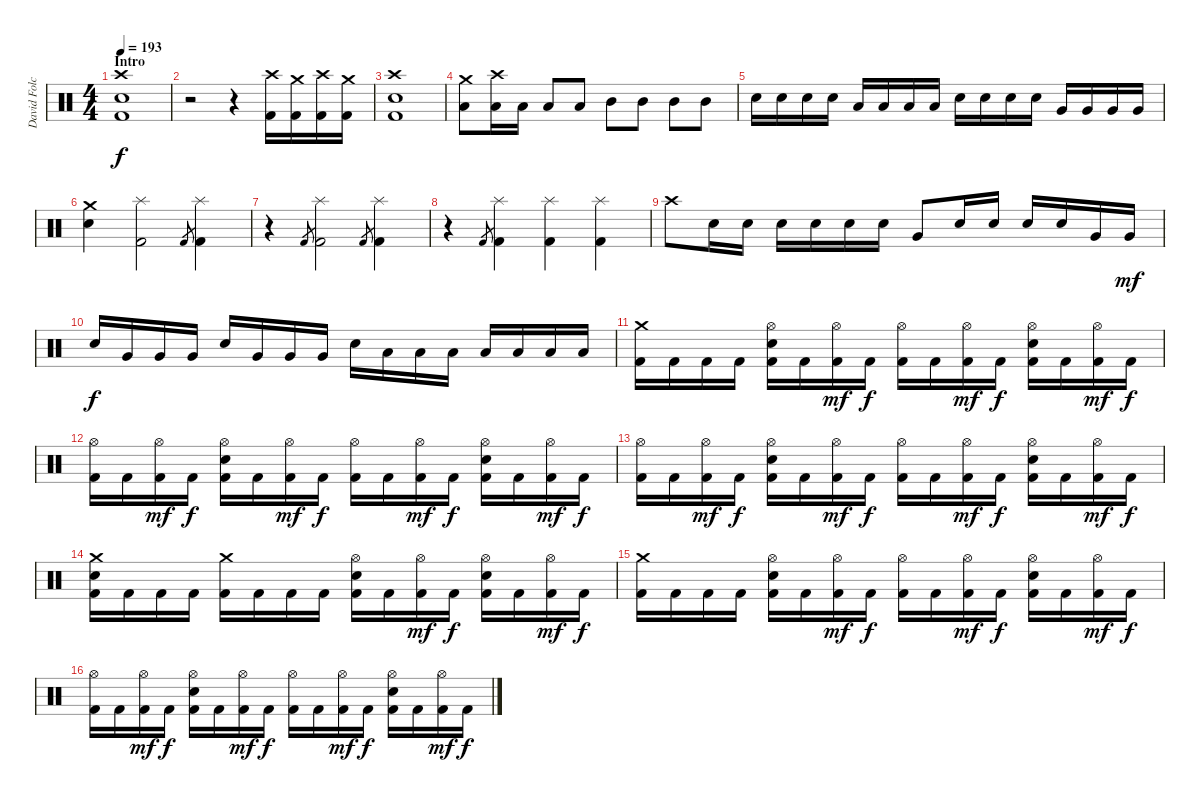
\track ("David Folchitto" "David Folc") {instrument percussion}
\staff {score}
\articulation defaults
\ts (4 4)
\section ("" "Intro")
\tempo 193
\clef neutral
\ks c
("Crash high (hit)" "Snare (hit) 2" "Kick (hit) 2").1{dy f} |
r.2 r.4 ("Crash high (hit)" "Kick (hit) 2").16 ("Crash medium (hit)" "Kick (hit) 2").16 ("Crash high (hit)" "Kick (hit) 2").16 ("Crash medium (hit)" "Kick (hit) 2").16 |
("Crash high (hit)" "Snare (hit) 2" "Kick (hit) 2").1 |
("Crash medium (hit)" "Low Tom (hit)").8 ("Crash high (hit)" "Low Tom (hit)").16 "Low Tom (hit)".16 "Low Tom (hit)".8 "Low Tom (hit)".8 "Mid Tom (hit)".8 "Mid Tom (hit)".8 "Mid Tom (hit)".8 "Mid Tom (hit)".8 |
"Snare (hit) 2".16 "Snare (hit) 2".16 "Snare (hit) 2".16 "Snare (hit) 2".16 "Low Tom (hit)".16 "Low Tom (hit)".16 "Low Tom (hit)".16 "Low Tom (hit)".16 "Snare (hit) 2".16 "Snare (hit) 2".16 "Snare (hit) 2".16 "Snare (hit) 2".16 "Very Low Tom (hit)".16 "Very Low Tom (hit)".16 "Very Low Tom (hit)".16 "Very Low Tom (hit)".16 |
("Crash medium (hit)" "Snare (hit) 2").4 ("Splash (hit)" "Kick (hit) 2").2 "Kick (hit) 2".8{gr} ("Splash (hit)" "Kick (hit) 2").4 |
r.4 "Kick (hit) 2".8{gr} ("Splash (hit)" "Kick (hit) 2").2 "Kick (hit) 2".8{gr} ("Splash (hit)" "Kick (hit) 2").4 |
r.4 "Kick (hit) 2".8{gr} ("Splash (hit)" "Kick (hit) 2").4 ("Splash (hit)" "Kick (hit) 2").4 ("Splash (hit)" "Kick (hit) 2").4 |
"Crash high (hit)".8 "Snare (hit) 2".16 "Snare (hit) 2".16 "Snare (hit) 2".16 "Snare (hit) 2".16 "Snare (hit) 2".16 "Snare (hit) 2".16 "Very Low Tom (hit)".8 "Snare (hit) 2".16 "Snare (hit) 2".16 "Snare (hit) 2".16 "Snare (hit) 2".16 "Very Low Tom (hit)".16 "Very Low Tom (hit)".16{dy mf} |
"Snare (hit) 2".16{dy f} "Very Low Tom (hit)".16 "Very Low Tom (hit)".16 "Very Low Tom (hit)".16 "Snare (hit) 2".16 "Very Low Tom (hit)".16 "Very Low Tom (hit)".16 "Very Low Tom (hit)".16 "Snare (hit) 2".16 "Low Tom (hit)".16 "Low Tom (hit)".16 "Low Tom (hit)".16 "Low Tom (hit)".16 "Low Tom (hit)".16 "Low Tom (hit)".16 "Low Tom (hit)".16 |
("Crash medium (hit)" "Kick (hit) 2").16 "Kick (hit) 2".16 "Kick (hit) 2".16 "Kick (hit) 2".16 ("Hi-Hat (open)" "Snare (hit) 2" "Kick (hit) 2").16 "Kick (hit) 2".16 ("Hi-Hat (open)" "Kick (hit) 2").16{dy mf} "Kick (hit) 2".16{dy f} ("Hi-Hat (open)" "Kick (hit) 2").16 "Kick (hit) 2".16 ("Hi-Hat (open)" "Kick (hit) 2").16{dy mf} "Kick (hit) 2".16{dy f} ("Hi-Hat (open)" "Snare (hit) 2" "Kick (hit) 2").16 "Kick (hit) 2".16 ("Hi-Hat (open)" "Kick (hit) 2").16{dy mf} "Kick (hit) 2".16{dy f} |
("Hi-Hat (open)" "Kick (hit) 2").16 "Kick (hit) 2".16 ("Hi-Hat (open)" "Kick (hit) 2").16{dy mf} "Kick (hit) 2".16{dy f} ("Hi-Hat (open)" "Snare (hit) 2" "Kick (hit) 2").16 "Kick (hit) 2".16 ("Hi-Hat (open)" "Kick (hit) 2").16{dy mf} "Kick (hit) 2".16{dy f} ("Hi-Hat (open)" "Kick (hit) 2").16 "Kick (hit) 2".16 ("Hi-Hat (open)" "Kick (hit) 2").16{dy mf} "Kick (hit) 2".16{dy f} ("Hi-Hat (open)" "Snare (hit) 2" "Kick (hit) 2").16 "Kick (hit) 2".16 ("Hi-Hat (open)" "Kick (hit) 2").16{dy mf} "Kick (hit) 2".16{dy f} |
("Hi-Hat (open)" "Kick (hit) 2").16 "Kick (hit) 2".16 ("Hi-Hat (open)" "Kick (hit) 2").16{dy mf} "Kick (hit) 2".16{dy f} ("Hi-Hat (open)" "Snare (hit) 2" "Kick (hit) 2").16 "Kick (hit) 2".16 ("Hi-Hat (open)" "Kick (hit) 2").16{dy mf} "Kick (hit) 2".16{dy f} ("Hi-Hat (open)" "Kick (hit) 2").16 "Kick (hit) 2".16 ("Hi-Hat (open)" "Kick (hit) 2").16{dy mf} "Kick (hit) 2".16{dy f} ("Hi-Hat (open)" "Snare (hit) 2" "Kick (hit) 2").16 "Kick (hit) 2".16 ("Hi-Hat (open)" "Kick (hit) 2").16{dy mf} "Kick (hit) 2".16{dy f} |
("Crash medium (hit)" "Snare (hit) 2" "Kick (hit) 2").16 "Kick (hit) 2".16 "Kick (hit) 2".16 "Kick (hit) 2".16 ("Crash medium (hit)" "Kick (hit) 2").16 "Kick (hit) 2".16 "Kick (hit) 2".16 "Kick (hit) 2".16 ("Hi-Hat (open)" "Snare (hit) 2" "Kick (hit) 2").16 "Kick (hit) 2".16 ("Hi-Hat (open)" "Kick (hit) 2").16{dy mf} "Kick (hit) 2".16{dy f} ("Hi-Hat (open)" "Snare (hit) 2" "Kick (hit) 2").16 "Kick (hit) 2".16 ("Hi-Hat (open)" "Kick (hit) 2").16{dy mf} "Kick (hit) 2".16{dy f} |
("Crash medium (hit)" "Kick (hit) 2").16 "Kick (hit) 2".16 "Kick (hit) 2".16 "Kick (hit) 2".16 ("Hi-Hat (open)" "Snare (hit) 2" "Kick (hit) 2").16 "Kick (hit) 2".16 ("Hi-Hat (open)" "Kick (hit) 2").16{dy mf} "Kick (hit) 2".16{dy f} ("Hi-Hat (open)" "Kick (hit) 2").16 "Kick (hit) 2".16 ("Hi-Hat (open)" "Kick (hit) 2").16{dy mf} "Kick (hit) 2".16{dy f} ("Hi-Hat (open)" "Snare (hit) 2" "Kick (hit) 2").16 "Kick (hit) 2".16 ("Hi-Hat (open)" "Kick (hit) 2").16{dy mf} "Kick (hit) 2".16{dy f} |
("Hi-Hat (open)" "Kick (hit) 2").16 "Kick (hit) 2".16 ("Hi-Hat (open)" "Kick (hit) 2").16{dy mf} "Kick (hit) 2".16{dy f} ("Hi-Hat (open)" "Snare (hit) 2" "Kick (hit) 2").16 "Kick (hit) 2".16 ("Hi-Hat (open)" "Kick (hit) 2").16{dy mf} "Kick (hit) 2".16{dy f} ("Hi-Hat (open)" "Kick (hit) 2").16 "Kick (hit) 2".16 ("Hi-Hat (open)" "Kick (hit) 2").16{dy mf} "Kick (hit) 2".16{dy f} ("Hi-Hat (open)" "Snare (hit) 2" "Kick (hit) 2").16 "Kick (hit) 2".16 ("Hi-Hat (open)" "Kick (hit) 2").16{dy mf} "Kick (hit) 2".16{dy f}
